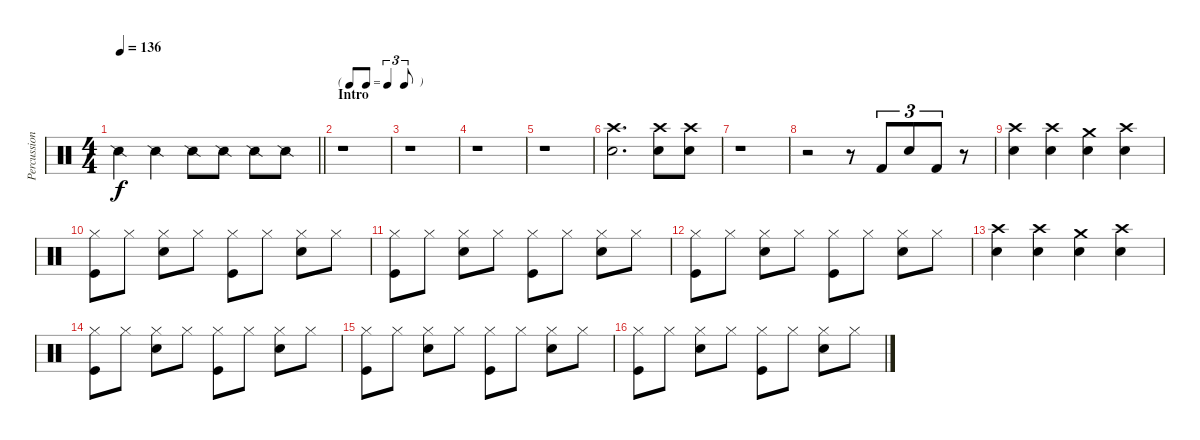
\track ("Percussion" "Percussion") {instrument percussion}
\staff {score}
\articulation defaults
\ts (4 4)
\tempo 136
\clef neutral
\barLineRight lightlight
\ks c "Snare (side stick) 2".4{dy f} "Snare (side stick) 2".4 "Snare (side stick) 2".8 "Snare (side stick) 2".8 "Snare (side stick) 2".8 "Snare (side stick) 2".8
|
\tf triplet8th
\section ("" "Intro")
r.1 |
r.1 |
r.1 |
r.1 |
("Crash high (hit)" "Snare (hit) 2").2{d} ("Crash high (hit)" "Snare (hit) 2").8 ("Crash high (hit)" "Snare (hit) 2").8 |
r.1 |
r.2 r.8 "Kick (hit) 2".8{tu (3 2)} "Snare (hit) 2".8{tu (3 2)} "Kick (hit) 2".8{tu (3 2)} r.8 |
("Crash high (hit)" "Snare (hit) 2").4 ("Crash high (hit)" "Snare (hit) 2").4 ("Crash medium (hit)" "Snare (hit) 2").4 ("Crash high (hit)" "Snare (hit) 2").4 |
("Hi-Hat (closed)" "Kick (hit)").8 "Hi-Hat (closed)".8 ("Hi-Hat (closed)" "Snare (hit) 2").8 "Hi-Hat (closed)".8 ("Hi-Hat (closed)" "Kick (hit)").8 "Hi-Hat (closed)".8 ("Hi-Hat (closed)" "Snare (hit) 2").8 "Hi-Hat (closed)".8 |
("Hi-Hat (closed)" "Kick (hit)").8 "Hi-Hat (closed)".8 ("Hi-Hat (closed)" "Snare (hit) 2").8 "Hi-Hat (closed)".8 ("Hi-Hat (closed)" "Kick (hit)").8 "Hi-Hat (closed)".8 ("Hi-Hat (closed)" "Snare (hit) 2").8 "Hi-Hat (closed)".8 |
("Hi-Hat (closed)" "Kick (hit)").8 "Hi-Hat (closed)".8 ("Hi-Hat (closed)" "Snare (hit) 2").8 "Hi-Hat (closed)".8 ("Hi-Hat (closed)" "Kick (hit)").8 "Hi-Hat (closed)".8 ("Hi-Hat (closed)" "Snare (hit) 2").8 "Hi-Hat (closed)".8 |
("Crash high (hit)" "Snare (hit) 2").4 ("Crash high (hit)" "Snare (hit) 2").4 ("Crash medium (hit)" "Snare (hit) 2").4 ("Crash high (hit)" "Snare (hit) 2").4 |
("Hi-Hat (closed)" "Kick (hit)").8 "Hi-Hat (closed)".8 ("Hi-Hat (closed)" "Snare (hit) 2").8 "Hi-Hat (closed)".8 ("Hi-Hat (closed)" "Kick (hit)").8 "Hi-Hat (closed)".8 ("Hi-Hat (closed)" "Snare (hit) 2").8 "Hi-Hat (closed)".8 |
("Hi-Hat (closed)" "Kick (hit)").8 "Hi-Hat (closed)".8 ("Hi-Hat (closed)" "Snare (hit) 2").8 "Hi-Hat (closed)".8 ("Hi-Hat (closed)" "Kick (hit)").8 "Hi-Hat (closed)".8 ("Hi-Hat (closed)" "Snare (hit) 2").8 "Hi-Hat (closed)".8 |
("Hi-Hat (closed)" "Kick (hit)").8 "Hi-Hat (closed)".8 ("Hi-Hat (closed)" "Snare (hit) 2").8 "Hi-Hat (closed)".8 ("Hi-Hat (closed)" "Kick (hit)").8 "Hi-Hat (closed)".8 ("Hi-Hat (closed)" "Snare (hit) 2").8 "Hi-Hat (closed)".8
